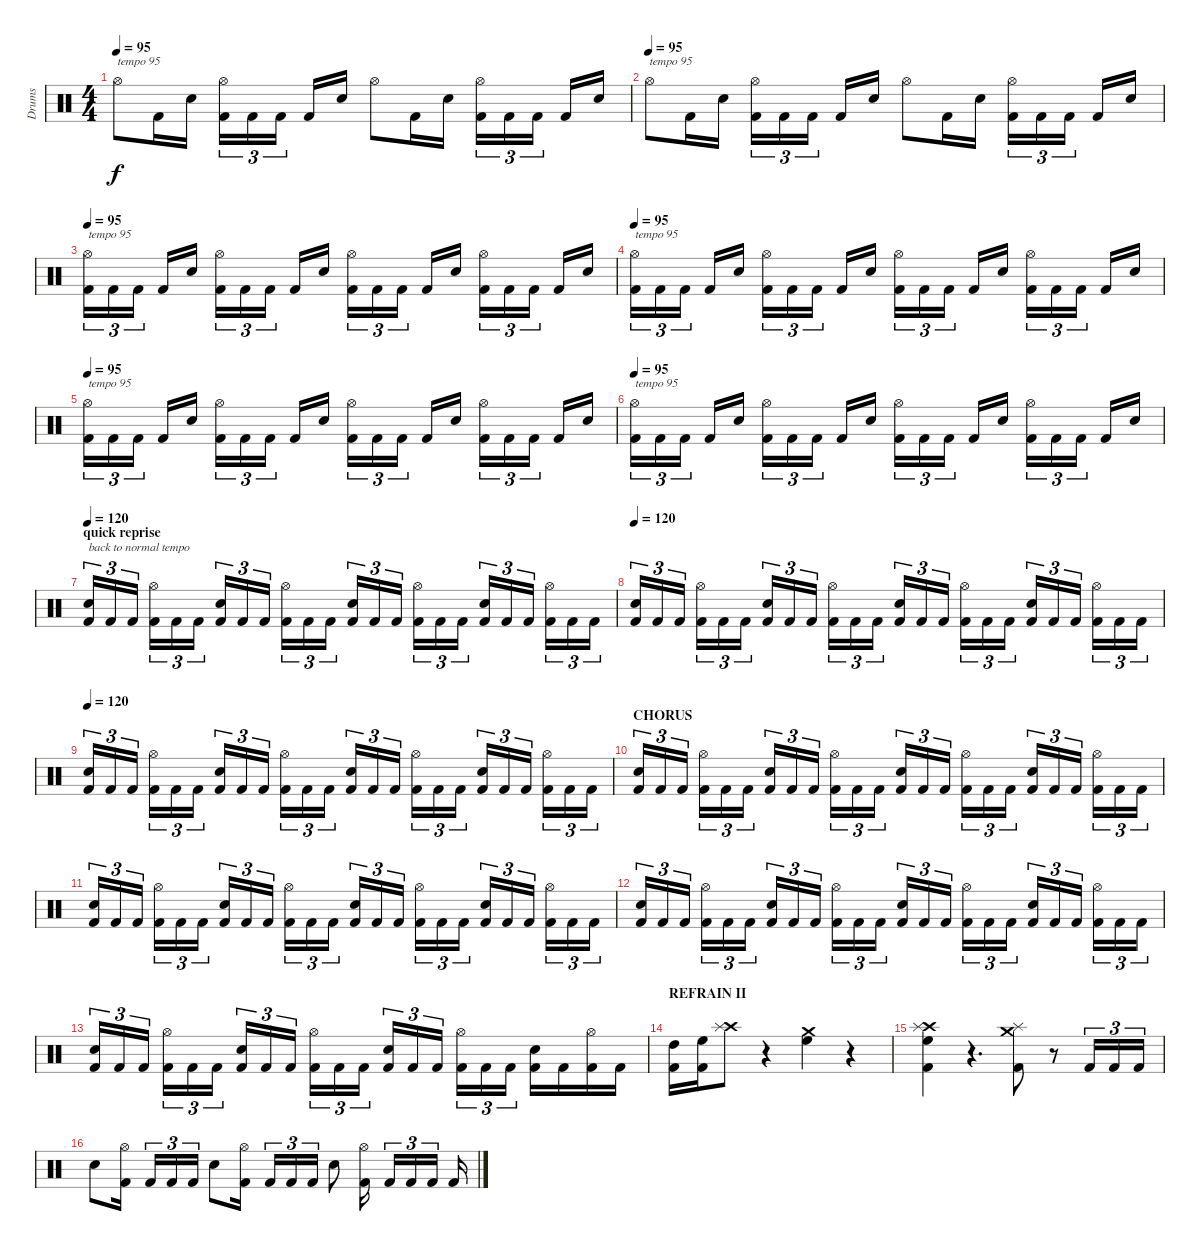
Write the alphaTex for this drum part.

\track ("Drums" "Drums") {instrument percussion}
\staff {score}
\articulation defaults
\ts (4 4)
\tempo 95
\clef neutral
\ks c "Hi-Hat (open)".8{txt "tempo 95" dy f} "Kick (hit) 2".16 "Electric Snare (hit)".16
("Hi-Hat (open)" "Kick (hit) 2").16{tu (3 2)} "Kick (hit) 2".16{tu (3 2)} "Kick (hit) 2".16{tu (3 2)} "Kick (hit) 2".16 "Electric Snare (hit)".16 "Hi-Hat (open)".8 "Kick (hit) 2".16 "Electric Snare (hit)".16 ("Hi-Hat (open)" "Kick (hit) 2").16{tu (3 2)} "Kick (hit) 2".16{tu (3 2)} "Kick (hit) 2".16{tu (3 2)} "Kick (hit) 2".16 "Electric Snare (hit)".16 |
\tempo (95)
"Hi-Hat (open)".8{txt "tempo 95"} "Kick (hit) 2".16 "Electric Snare (hit)".16 ("Hi-Hat (open)" "Kick (hit) 2").16{tu (3 2)} "Kick (hit) 2".16{tu (3 2)} "Kick (hit) 2".16{tu (3 2)} "Kick (hit) 2".16 "Electric Snare (hit)".16 "Hi-Hat (open)".8 "Kick (hit) 2".16 "Electric Snare (hit)".16 ("Hi-Hat (open)" "Kick (hit) 2").16{tu (3 2)} "Kick (hit) 2".16{tu (3 2)} "Kick (hit) 2".16{tu (3 2)} "Kick (hit) 2".16 "Electric Snare (hit)".16 |
\tempo 95
("Hi-Hat (open)" "Kick (hit) 2").16{tu (3 2) txt "tempo 95"} "Kick (hit) 2".16{tu (3 2)} "Kick (hit) 2".16{tu (3 2)} "Kick (hit) 2".16 "Electric Snare (hit)".16 ("Hi-Hat (open)" "Kick (hit) 2").16{tu (3 2)} "Kick (hit) 2".16{tu (3 2)} "Kick (hit) 2".16{tu (3 2)} "Kick (hit) 2".16 "Electric Snare (hit)".16 ("Hi-Hat (open)" "Kick (hit) 2").16{tu (3 2)} "Kick (hit) 2".16{tu (3 2)} "Kick (hit) 2".16{tu (3 2)} "Kick (hit) 2".16 "Electric Snare (hit)".16 ("Hi-Hat (open)" "Kick (hit) 2").16{tu (3 2)} "Kick (hit) 2".16{tu (3 2)} "Kick (hit) 2".16{tu (3 2)} "Kick (hit) 2".16 "Electric Snare (hit)".16 |
\tempo 95
("Hi-Hat (open)" "Kick (hit) 2").16{tu (3 2) txt "tempo 95"} "Kick (hit) 2".16{tu (3 2)} "Kick (hit) 2".16{tu (3 2)} "Kick (hit) 2".16 "Electric Snare (hit)".16 ("Hi-Hat (open)" "Kick (hit) 2").16{tu (3 2)} "Kick (hit) 2".16{tu (3 2)} "Kick (hit) 2".16{tu (3 2)} "Kick (hit) 2".16 "Electric Snare (hit)".16 ("Hi-Hat (open)" "Kick (hit) 2").16{tu (3 2)} "Kick (hit) 2".16{tu (3 2)} "Kick (hit) 2".16{tu (3 2)} "Kick (hit) 2".16 "Electric Snare (hit)".16 ("Hi-Hat (open)" "Kick (hit) 2").16{tu (3 2)} "Kick (hit) 2".16{tu (3 2)} "Kick (hit) 2".16{tu (3 2)} "Kick (hit) 2".16 "Electric Snare (hit)".16 |
\tempo 95
("Hi-Hat (open)" "Kick (hit) 2").16{tu (3 2) txt "tempo 95"} "Kick (hit) 2".16{tu (3 2)} "Kick (hit) 2".16{tu (3 2)} "Kick (hit) 2".16 "Electric Snare (hit)".16 ("Hi-Hat (open)" "Kick (hit) 2").16{tu (3 2)} "Kick (hit) 2".16{tu (3 2)} "Kick (hit) 2".16{tu (3 2)} "Kick (hit) 2".16 "Electric Snare (hit)".16 ("Hi-Hat (open)" "Kick (hit) 2").16{tu (3 2)} "Kick (hit) 2".16{tu (3 2)} "Kick (hit) 2".16{tu (3 2)} "Kick (hit) 2".16 "Electric Snare (hit)".16 ("Hi-Hat (open)" "Kick (hit) 2").16{tu (3 2)} "Kick (hit) 2".16{tu (3 2)} "Kick (hit) 2".16{tu (3 2)} "Kick (hit) 2".16 "Electric Snare (hit)".16 |
\tempo 95
("Hi-Hat (open)" "Kick (hit) 2").16{tu (3 2) txt "tempo 95"} "Kick (hit) 2".16{tu (3 2)} "Kick (hit) 2".16{tu (3 2)} "Kick (hit) 2".16 "Electric Snare (hit)".16 ("Hi-Hat (open)" "Kick (hit) 2").16{tu (3 2)} "Kick (hit) 2".16{tu (3 2)} "Kick (hit) 2".16{tu (3 2)} "Kick (hit) 2".16 "Electric Snare (hit)".16 ("Hi-Hat (open)" "Kick (hit) 2").16{tu (3 2)} "Kick (hit) 2".16{tu (3 2)} "Kick (hit) 2".16{tu (3 2)} "Kick (hit) 2".16 "Electric Snare (hit)".16 ("Hi-Hat (open)" "Kick (hit) 2").16{tu (3 2)} "Kick (hit) 2".16{tu (3 2)} "Kick (hit) 2".16{tu (3 2)} "Kick (hit) 2".16 "Electric Snare (hit)".16 |
\section ("" "quick reprise")
\tempo 120
("Electric Snare (hit)" "Kick (hit) 2").16{tu (3 2) txt "back to normal tempo"} "Kick (hit) 2".16{tu (3 2)} "Kick (hit) 2".16{tu (3 2)} ("Hi-Hat (open)" "Kick (hit) 2").16{tu (3 2)} "Kick (hit) 2".16{tu (3 2)} "Kick (hit) 2".16{tu (3 2)} ("Electric Snare (hit)" "Kick (hit) 2").16{tu (3 2)} "Kick (hit) 2".16{tu (3 2)} "Kick (hit) 2".16{tu (3 2)} ("Hi-Hat (open)" "Kick (hit) 2").16{tu (3 2)} "Kick (hit) 2".16{tu (3 2)} "Kick (hit) 2".16{tu (3 2)} ("Electric Snare (hit)" "Kick (hit) 2").16{tu (3 2)} "Kick (hit) 2".16{tu (3 2)} "Kick (hit) 2".16{tu (3 2)} ("Hi-Hat (open)" "Kick (hit) 2").16{tu (3 2)} "Kick (hit) 2".16{tu (3 2)} "Kick (hit) 2".16{tu (3 2)} ("Electric Snare (hit)" "Kick (hit) 2").16{tu (3 2)} "Kick (hit) 2".16{tu (3 2)} "Kick (hit) 2".16{tu (3 2)} ("Hi-Hat (open)" "Kick (hit) 2").16{tu (3 2)} "Kick (hit) 2".16{tu (3 2)} "Kick (hit) 2".16{tu (3 2)} |
\tempo 120
("Electric Snare (hit)" "Kick (hit) 2").16{tu (3 2)} "Kick (hit) 2".16{tu (3 2)} "Kick (hit) 2".16{tu (3 2)} ("Hi-Hat (open)" "Kick (hit) 2").16{tu (3 2)} "Kick (hit) 2".16{tu (3 2)} "Kick (hit) 2".16{tu (3 2)} ("Electric Snare (hit)" "Kick (hit) 2").16{tu (3 2)} "Kick (hit) 2".16{tu (3 2)} "Kick (hit) 2".16{tu (3 2)} ("Hi-Hat (open)" "Kick (hit) 2").16{tu (3 2)} "Kick (hit) 2".16{tu (3 2)} "Kick (hit) 2".16{tu (3 2)} ("Electric Snare (hit)" "Kick (hit) 2").16{tu (3 2)} "Kick (hit) 2".16{tu (3 2)} "Kick (hit) 2".16{tu (3 2)} ("Hi-Hat (open)" "Kick (hit) 2").16{tu (3 2)} "Kick (hit) 2".16{tu (3 2)} "Kick (hit) 2".16{tu (3 2)} ("Electric Snare (hit)" "Kick (hit) 2").16{tu (3 2)} "Kick (hit) 2".16{tu (3 2)} "Kick (hit) 2".16{tu (3 2)} ("Hi-Hat (open)" "Kick (hit) 2").16{tu (3 2)} "Kick (hit) 2".16{tu (3 2)} "Kick (hit) 2".16{tu (3 2)} |
\tempo 120
("Electric Snare (hit)" "Kick (hit) 2").16{tu (3 2)} "Kick (hit) 2".16{tu (3 2)} "Kick (hit) 2".16{tu (3 2)} ("Hi-Hat (open)" "Kick (hit) 2").16{tu (3 2)} "Kick (hit) 2".16{tu (3 2)} "Kick (hit) 2".16{tu (3 2)} ("Electric Snare (hit)" "Kick (hit) 2").16{tu (3 2)} "Kick (hit) 2".16{tu (3 2)} "Kick (hit) 2".16{tu (3 2)} ("Hi-Hat (open)" "Kick (hit) 2").16{tu (3 2)} "Kick (hit) 2".16{tu (3 2)} "Kick (hit) 2".16{tu (3 2)} ("Electric Snare (hit)" "Kick (hit) 2").16{tu (3 2)} "Kick (hit) 2".16{tu (3 2)} "Kick (hit) 2".16{tu (3 2)} ("Hi-Hat (open)" "Kick (hit) 2").16{tu (3 2)} "Kick (hit) 2".16{tu (3 2)} "Kick (hit) 2".16{tu (3 2)} ("Electric Snare (hit)" "Kick (hit) 2").16{tu (3 2)} "Kick (hit) 2".16{tu (3 2)} "Kick (hit) 2".16{tu (3 2)} ("Hi-Hat (open)" "Kick (hit) 2").16{tu (3 2)} "Kick (hit) 2".16{tu (3 2)} "Kick (hit) 2".16{tu (3 2)} |
\section ("" "CHORUS")
("Electric Snare (hit)" "Kick (hit) 2").16{tu (3 2)} "Kick (hit) 2".16{tu (3 2)} "Kick (hit) 2".16{tu (3 2)} ("Hi-Hat (open)" "Kick (hit) 2").16{tu (3 2)} "Kick (hit) 2".16{tu (3 2)} "Kick (hit) 2".16{tu (3 2)} ("Electric Snare (hit)" "Kick (hit) 2").16{tu (3 2)} "Kick (hit) 2".16{tu (3 2)} "Kick (hit) 2".16{tu (3 2)} ("Hi-Hat (open)" "Kick (hit) 2").16{tu (3 2)} "Kick (hit) 2".16{tu (3 2)} "Kick (hit) 2".16{tu (3 2)} ("Electric Snare (hit)" "Kick (hit) 2").16{tu (3 2)} "Kick (hit) 2".16{tu (3 2)} "Kick (hit) 2".16{tu (3 2)} ("Hi-Hat (open)" "Kick (hit) 2").16{tu (3 2)} "Kick (hit) 2".16{tu (3 2)} "Kick (hit) 2".16{tu (3 2)} ("Electric Snare (hit)" "Kick (hit) 2").16{tu (3 2)} "Kick (hit) 2".16{tu (3 2)} "Kick (hit) 2".16{tu (3 2)} ("Hi-Hat (open)" "Kick (hit) 2").16{tu (3 2)} "Kick (hit) 2".16{tu (3 2)} "Kick (hit) 2".16{tu (3 2)} |
("Electric Snare (hit)" "Kick (hit) 2").16{tu (3 2)} "Kick (hit) 2".16{tu (3 2)} "Kick (hit) 2".16{tu (3 2)} ("Hi-Hat (open)" "Kick (hit) 2").16{tu (3 2)} "Kick (hit) 2".16{tu (3 2)} "Kick (hit) 2".16{tu (3 2)} ("Electric Snare (hit)" "Kick (hit) 2").16{tu (3 2)} "Kick (hit) 2".16{tu (3 2)} "Kick (hit) 2".16{tu (3 2)} ("Hi-Hat (open)" "Kick (hit) 2").16{tu (3 2)} "Kick (hit) 2".16{tu (3 2)} "Kick (hit) 2".16{tu (3 2)} ("Electric Snare (hit)" "Kick (hit) 2").16{tu (3 2)} "Kick (hit) 2".16{tu (3 2)} "Kick (hit) 2".16{tu (3 2)} ("Hi-Hat (open)" "Kick (hit) 2").16{tu (3 2)} "Kick (hit) 2".16{tu (3 2)} "Kick (hit) 2".16{tu (3 2)} ("Electric Snare (hit)" "Kick (hit) 2").16{tu (3 2)} "Kick (hit) 2".16{tu (3 2)} "Kick (hit) 2".16{tu (3 2)} ("Hi-Hat (open)" "Kick (hit) 2").16{tu (3 2)} "Kick (hit) 2".16{tu (3 2)} "Kick (hit) 2".16{tu (3 2)} |
("Electric Snare (hit)" "Kick (hit) 2").16{tu (3 2)} "Kick (hit) 2".16{tu (3 2)} "Kick (hit) 2".16{tu (3 2)} ("Hi-Hat (open)" "Kick (hit) 2").16{tu (3 2)} "Kick (hit) 2".16{tu (3 2)} "Kick (hit) 2".16{tu (3 2)} ("Electric Snare (hit)" "Kick (hit) 2").16{tu (3 2)} "Kick (hit) 2".16{tu (3 2)} "Kick (hit) 2".16{tu (3 2)} ("Hi-Hat (open)" "Kick (hit) 2").16{tu (3 2)} "Kick (hit) 2".16{tu (3 2)} "Kick (hit) 2".16{tu (3 2)} ("Electric Snare (hit)" "Kick (hit) 2").16{tu (3 2)} "Kick (hit) 2".16{tu (3 2)} "Kick (hit) 2".16{tu (3 2)} ("Hi-Hat (open)" "Kick (hit) 2").16{tu (3 2)} "Kick (hit) 2".16{tu (3 2)} "Kick (hit) 2".16{tu (3 2)} ("Electric Snare (hit)" "Kick (hit) 2").16{tu (3 2)} "Kick (hit) 2".16{tu (3 2)} "Kick (hit) 2".16{tu (3 2)} ("Hi-Hat (open)" "Kick (hit) 2").16{tu (3 2)} "Kick (hit) 2".16{tu (3 2)} "Kick (hit) 2".16{tu (3 2)} |
("Electric Snare (hit)" "Kick (hit) 2").16{tu (3 2)} "Kick (hit) 2".16{tu (3 2)} "Kick (hit) 2".16{tu (3 2)} ("Hi-Hat (open)" "Kick (hit) 2").16{tu (3 2)} "Kick (hit) 2".16{tu (3 2)} "Kick (hit) 2".16{tu (3 2)} ("Electric Snare (hit)" "Kick (hit) 2").16{tu (3 2)} "Kick (hit) 2".16{tu (3 2)} "Kick (hit) 2".16{tu (3 2)} ("Hi-Hat (open)" "Kick (hit) 2").16{tu (3 2)} "Kick (hit) 2".16{tu (3 2)} "Kick (hit) 2".16{tu (3 2)} ("Electric Snare (hit)" "Kick (hit) 2").16{tu (3 2)} "Kick (hit) 2".16{tu (3 2)} "Kick (hit) 2".16{tu (3 2)} ("Hi-Hat (open)" "Kick (hit) 2").16{tu (3 2)} "Kick (hit) 2".16{tu (3 2)} "Kick (hit) 2".16{tu (3 2)} ("Electric Snare (hit)" "Kick (hit) 2").16 "Kick (hit) 2".16 ("Hi-Hat (open)" "Kick (hit) 2").16 "Kick (hit) 2".16 |
\section ("" "REFRAIN II")
("High Tom (hit)" "Kick (hit) 2").16 ("High Floor Tom (hit)" "Kick (hit) 2").16 ("Crash high (hit)" "Splash (hit)").8 r.4 ("Crash medium (hit)" "High Floor Tom (hit)").4 r.4 |
("Crash high (hit)" "Splash (hit)" "High Floor Tom (hit)" "Kick (hit) 2").4 r.4{d} ("Splash (hit)" "Crash medium (hit)" "Kick (hit) 2").8 r.8 "Kick (hit) 2".16{tu (3 2)} "Kick (hit) 2".16{tu (3 2)} "Kick (hit) 2".16{tu (3 2)} |
"Electric Snare (hit)".8 ("Hi-Hat (open)" "Kick (hit) 2").16 "Kick (hit) 2".16{tu (3 2)} "Kick (hit) 2".16{tu (3 2)} "Kick (hit) 2".16{tu (3 2)} "Electric Snare (hit)".8 ("Hi-Hat (open)" "Kick (hit) 2").16 "Kick (hit) 2".16{tu (3 2)} "Kick (hit) 2".16{tu (3 2)} "Kick (hit) 2".16{tu (3 2)} "Electric Snare (hit)".8 ("Hi-Hat (open)" "Kick (hit) 2").16 "Kick (hit) 2".16{tu (3 2)} "Kick (hit) 2".16{tu (3 2)} "Kick (hit) 2".16{tu (3 2)} "Kick (hit) 2".16
